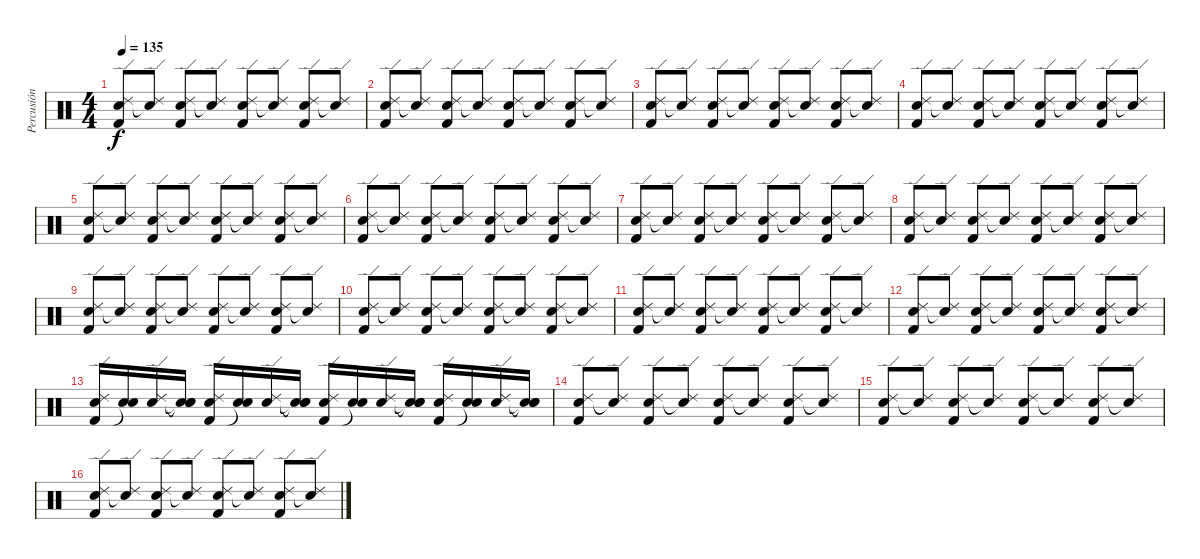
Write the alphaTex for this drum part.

\track ("Percusión" "Percusión") {instrument percussion}
\staff {score}
\articulation defaults
\ts (4 4)
\tempo 135
\clef neutral
\ks c
("Kick (hit) 2" "Ride (edge) 2" "Electric Snare (hit)").8{dy f} ("Ride (edge) 2" "Snare (hit)"{t}).8 ("Kick (hit) 2" "Ride (edge) 2" "Electric Snare (hit)").8 ("Ride (edge) 2" "Snare (hit)"{t}).8 ("Kick (hit) 2" "Ride (edge) 2" "Electric Snare (hit)").8 ("Ride (edge) 2" "Snare (hit)"{t}).8 ("Kick (hit) 2" "Ride (edge) 2" "Electric Snare (hit)").8 ("Ride (edge) 2" "Snare (hit)"{t}).8 |
("Kick (hit) 2" "Ride (edge) 2" "Electric Snare (hit)").8 ("Ride (edge) 2" "Snare (hit)"{t}).8 ("Kick (hit) 2" "Ride (edge) 2" "Electric Snare (hit)").8 ("Ride (edge) 2" "Snare (hit)"{t}).8 ("Kick (hit) 2" "Ride (edge) 2" "Electric Snare (hit)").8 ("Ride (edge) 2" "Snare (hit)"{t}).8 ("Kick (hit) 2" "Ride (edge) 2" "Electric Snare (hit)").8 ("Ride (edge) 2" "Snare (hit)"{t}).8 |
("Kick (hit) 2" "Ride (edge) 2" "Electric Snare (hit)").8 ("Ride (edge) 2" "Snare (hit)"{t}).8 ("Kick (hit) 2" "Ride (edge) 2" "Electric Snare (hit)").8 ("Ride (edge) 2" "Snare (hit)"{t}).8 ("Kick (hit) 2" "Ride (edge) 2" "Electric Snare (hit)").8 ("Ride (edge) 2" "Snare (hit)"{t}).8 ("Kick (hit) 2" "Ride (edge) 2" "Electric Snare (hit)").8 ("Ride (edge) 2" "Snare (hit)"{t}).8 |
("Kick (hit) 2" "Ride (edge) 2" "Electric Snare (hit)").8 ("Ride (edge) 2" "Snare (hit)"{t}).8 ("Kick (hit) 2" "Ride (edge) 2" "Electric Snare (hit)").8 ("Ride (edge) 2" "Snare (hit)"{t}).8 ("Kick (hit) 2" "Ride (edge) 2" "Electric Snare (hit)").8 ("Ride (edge) 2" "Snare (hit)"{t}).8 ("Kick (hit) 2" "Ride (edge) 2" "Electric Snare (hit)").8 ("Ride (edge) 2" "Snare (hit)"{t}).8 |
("Kick (hit) 2" "Ride (edge) 2" "Electric Snare (hit)").8 ("Ride (edge) 2" "Snare (hit)"{t}).8 ("Kick (hit) 2" "Ride (edge) 2" "Electric Snare (hit)").8 ("Ride (edge) 2" "Snare (hit)"{t}).8 ("Kick (hit) 2" "Ride (edge) 2" "Electric Snare (hit)").8 ("Ride (edge) 2" "Snare (hit)"{t}).8 ("Kick (hit) 2" "Ride (edge) 2" "Electric Snare (hit)").8 ("Ride (edge) 2" "Snare (hit)"{t}).8 |
("Kick (hit) 2" "Ride (edge) 2" "Electric Snare (hit)").8 ("Ride (edge) 2" "Snare (hit)"{t}).8 ("Kick (hit) 2" "Ride (edge) 2" "Electric Snare (hit)").8 ("Ride (edge) 2" "Snare (hit)"{t}).8 ("Kick (hit) 2" "Ride (edge) 2" "Electric Snare (hit)").8 ("Ride (edge) 2" "Snare (hit)"{t}).8 ("Kick (hit) 2" "Ride (edge) 2" "Electric Snare (hit)").8 ("Ride (edge) 2" "Snare (hit)"{t}).8 |
("Kick (hit) 2" "Ride (edge) 2" "Electric Snare (hit)").8 ("Ride (edge) 2" "Snare (hit)"{t}).8 ("Kick (hit) 2" "Ride (edge) 2" "Electric Snare (hit)").8 ("Ride (edge) 2" "Snare (hit)"{t}).8 ("Kick (hit) 2" "Ride (edge) 2" "Electric Snare (hit)").8 ("Ride (edge) 2" "Snare (hit)"{t}).8 ("Kick (hit) 2" "Ride (edge) 2" "Electric Snare (hit)").8 ("Ride (edge) 2" "Snare (hit)"{t}).8 |
("Kick (hit) 2" "Ride (edge) 2" "Electric Snare (hit)").8 ("Ride (edge) 2" "Snare (hit)"{t}).8 ("Kick (hit) 2" "Ride (edge) 2" "Electric Snare (hit)").8 ("Ride (edge) 2" "Snare (hit)"{t}).8 ("Kick (hit) 2" "Ride (edge) 2" "Electric Snare (hit)").8 ("Ride (edge) 2" "Snare (hit)"{t}).8 ("Kick (hit) 2" "Ride (edge) 2" "Electric Snare (hit)").8 ("Ride (edge) 2" "Snare (hit)"{t}).8 |
("Kick (hit) 2" "Ride (edge) 2" "Electric Snare (hit)").8 ("Ride (edge) 2" "Snare (hit)"{t}).8 ("Kick (hit) 2" "Ride (edge) 2" "Electric Snare (hit)").8 ("Ride (edge) 2" "Snare (hit)"{t}).8 ("Kick (hit) 2" "Ride (edge) 2" "Electric Snare (hit)").8 ("Ride (edge) 2" "Snare (hit)"{t}).8 ("Kick (hit) 2" "Ride (edge) 2" "Electric Snare (hit)").8 ("Ride (edge) 2" "Snare (hit)"{t}).8 |
("Kick (hit) 2" "Ride (edge) 2" "Electric Snare (hit)").8 ("Ride (edge) 2" "Snare (hit)"{t}).8 ("Kick (hit) 2" "Ride (edge) 2" "Electric Snare (hit)").8 ("Ride (edge) 2" "Snare (hit)"{t}).8 ("Kick (hit) 2" "Ride (edge) 2" "Electric Snare (hit)").8 ("Ride (edge) 2" "Snare (hit)"{t}).8 ("Kick (hit) 2" "Ride (edge) 2" "Electric Snare (hit)").8 ("Ride (edge) 2" "Snare (hit)"{t}).8 |
("Kick (hit) 2" "Ride (edge) 2" "Electric Snare (hit)").8 ("Ride (edge) 2" "Snare (hit)"{t}).8 ("Kick (hit) 2" "Ride (edge) 2" "Electric Snare (hit)").8 ("Ride (edge) 2" "Snare (hit)"{t}).8 ("Kick (hit) 2" "Ride (edge) 2" "Electric Snare (hit)").8 ("Ride (edge) 2" "Snare (hit)"{t}).8 ("Kick (hit) 2" "Ride (edge) 2" "Electric Snare (hit)").8 ("Ride (edge) 2" "Snare (hit)"{t}).8 |
("Kick (hit) 2" "Ride (edge) 2" "Electric Snare (hit)").8 ("Ride (edge) 2" "Snare (hit)"{t}).8 ("Kick (hit) 2" "Ride (edge) 2" "Electric Snare (hit)").8 ("Ride (edge) 2" "Snare (hit)"{t}).8 ("Kick (hit) 2" "Ride (edge) 2" "Electric Snare (hit)").8 ("Ride (edge) 2" "Snare (hit)"{t}).8 ("Kick (hit) 2" "Ride (edge) 2" "Electric Snare (hit)").8 ("Ride (edge) 2" "Snare (hit)"{t}).8 |
("Kick (hit) 2" "Ride (edge) 2" "Electric Snare (hit)").16 ("Snare (hit)"{t} "Electric Snare (hit)").16 ("Ride (edge) 2" "Electric Snare (hit)").16 ("Snare (hit)"{t} "Snare (hit)"{t} "Electric Snare (hit)").16 ("Kick (hit) 2" "Ride (edge) 2" "Electric Snare (hit)").16 ("Snare (hit)"{t} "Electric Snare (hit)").16 ("Ride (edge) 2" "Electric Snare (hit)").16 ("Snare (hit)"{t} "Snare (hit)"{t} "Electric Snare (hit)").16 ("Kick (hit) 2" "Ride (edge) 2" "Electric Snare (hit)").16 ("Snare (hit)"{t} "Electric Snare (hit)").16 ("Ride (edge) 2" "Electric Snare (hit)").16 ("Snare (hit)"{t} "Snare (hit)"{t} "Electric Snare (hit)").16 ("Kick (hit) 2" "Ride (edge) 2" "Electric Snare (hit)").16 ("Snare (hit)"{t} "Electric Snare (hit)").16 ("Ride (edge) 2" "Electric Snare (hit)").16 ("Snare (hit)"{t} "Snare (hit)"{t} "Electric Snare (hit)").16 |
("Kick (hit) 2" "Ride (edge) 2" "Electric Snare (hit)").8 ("Ride (edge) 2" "Snare (hit)"{t}).8 ("Kick (hit) 2" "Ride (edge) 2" "Electric Snare (hit)").8 ("Ride (edge) 2" "Snare (hit)"{t}).8 ("Kick (hit) 2" "Ride (edge) 2" "Electric Snare (hit)").8 ("Ride (edge) 2" "Snare (hit)"{t}).8 ("Kick (hit) 2" "Ride (edge) 2" "Electric Snare (hit)").8 ("Ride (edge) 2" "Snare (hit)"{t}).8 |
("Kick (hit) 2" "Ride (edge) 2" "Electric Snare (hit)").8 ("Ride (edge) 2" "Snare (hit)"{t}).8 ("Kick (hit) 2" "Ride (edge) 2" "Electric Snare (hit)").8 ("Ride (edge) 2" "Snare (hit)"{t}).8 ("Kick (hit) 2" "Ride (edge) 2" "Electric Snare (hit)").8 ("Ride (edge) 2" "Snare (hit)"{t}).8 ("Kick (hit) 2" "Ride (edge) 2" "Electric Snare (hit)").8 ("Ride (edge) 2" "Snare (hit)"{t}).8 |
("Kick (hit) 2" "Ride (edge) 2" "Electric Snare (hit)").8 ("Ride (edge) 2" "Snare (hit)"{t}).8 ("Kick (hit) 2" "Ride (edge) 2" "Electric Snare (hit)").8 ("Ride (edge) 2" "Snare (hit)"{t}).8 ("Kick (hit) 2" "Ride (edge) 2" "Electric Snare (hit)").8 ("Ride (edge) 2" "Snare (hit)"{t}).8 ("Kick (hit) 2" "Ride (edge) 2" "Electric Snare (hit)").8 ("Ride (edge) 2" "Snare (hit)"{t}).8
